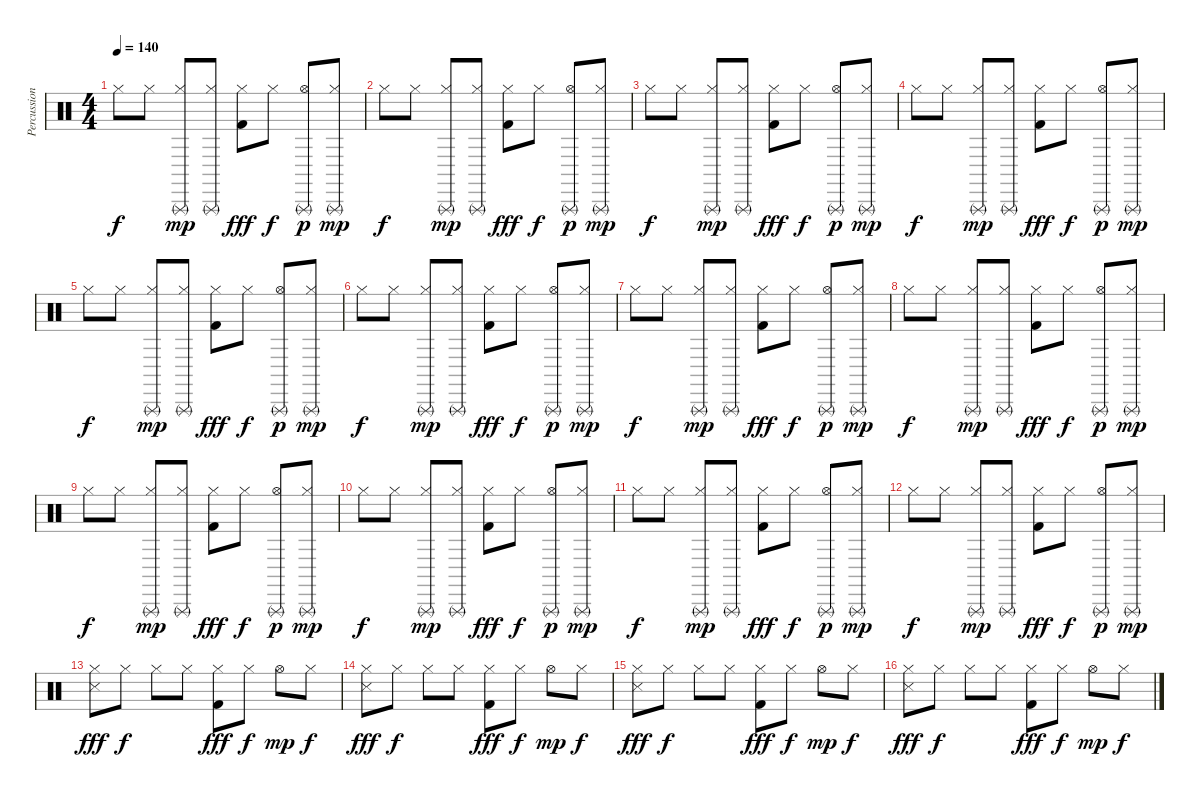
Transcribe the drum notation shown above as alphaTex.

\track ("Percussion" "Percussion") {instrument percussion}
\staff {score}
\articulation defaults
\ts (4 4)
\tempo 140
\clef neutral
\ks c "Hi-Hat (closed)".8{dy f} "Hi-Hat (closed)".8
("Triangle (rnute)" "Hi-Hat (closed)").8{dy mp} ("Triangle (rnute)" "Hi-Hat (closed)").8 ("Hi-Hat (closed)" "Kick (hit) 2").8{dy fff} "Hi-Hat (closed)".8{dy f} ("Triangle (rnute)" "Hi-Hat (open)").8{dy p} ("Triangle (rnute)" "Hi-Hat (closed)").8{dy mp} |
"Hi-Hat (closed)".8{dy f} "Hi-Hat (closed)".8 ("Triangle (rnute)" "Hi-Hat (closed)").8{dy mp} ("Triangle (rnute)" "Hi-Hat (closed)").8 ("Hi-Hat (closed)" "Kick (hit) 2").8{dy fff} "Hi-Hat (closed)".8{dy f} ("Triangle (rnute)" "Hi-Hat (open)").8{dy p} ("Triangle (rnute)" "Hi-Hat (closed)").8{dy mp} |
"Hi-Hat (closed)".8{dy f} "Hi-Hat (closed)".8 ("Triangle (rnute)" "Hi-Hat (closed)").8{dy mp} ("Triangle (rnute)" "Hi-Hat (closed)").8 ("Hi-Hat (closed)" "Kick (hit) 2").8{dy fff} "Hi-Hat (closed)".8{dy f} ("Triangle (rnute)" "Hi-Hat (open)").8{dy p} ("Triangle (rnute)" "Hi-Hat (closed)").8{dy mp} |
"Hi-Hat (closed)".8{dy f} "Hi-Hat (closed)".8 ("Triangle (rnute)" "Hi-Hat (closed)").8{dy mp} ("Triangle (rnute)" "Hi-Hat (closed)").8 ("Hi-Hat (closed)" "Kick (hit) 2").8{dy fff} "Hi-Hat (closed)".8{dy f} ("Triangle (rnute)" "Hi-Hat (open)").8{dy p} ("Triangle (rnute)" "Hi-Hat (closed)").8{dy mp} |
"Hi-Hat (closed)".8{dy f} "Hi-Hat (closed)".8 ("Triangle (rnute)" "Hi-Hat (closed)").8{dy mp} ("Triangle (rnute)" "Hi-Hat (closed)").8 ("Hi-Hat (closed)" "Kick (hit) 2").8{dy fff} "Hi-Hat (closed)".8{dy f} ("Triangle (rnute)" "Hi-Hat (open)").8{dy p} ("Triangle (rnute)" "Hi-Hat (closed)").8{dy mp} |
"Hi-Hat (closed)".8{dy f} "Hi-Hat (closed)".8 ("Triangle (rnute)" "Hi-Hat (closed)").8{dy mp} ("Triangle (rnute)" "Hi-Hat (closed)").8 ("Hi-Hat (closed)" "Kick (hit) 2").8{dy fff} "Hi-Hat (closed)".8{dy f} ("Triangle (rnute)" "Hi-Hat (open)").8{dy p} ("Triangle (rnute)" "Hi-Hat (closed)").8{dy mp} |
"Hi-Hat (closed)".8{dy f} "Hi-Hat (closed)".8 ("Triangle (rnute)" "Hi-Hat (closed)").8{dy mp} ("Triangle (rnute)" "Hi-Hat (closed)").8 ("Hi-Hat (closed)" "Kick (hit) 2").8{dy fff} "Hi-Hat (closed)".8{dy f} ("Triangle (rnute)" "Hi-Hat (open)").8{dy p} ("Triangle (rnute)" "Hi-Hat (closed)").8{dy mp} |
"Hi-Hat (closed)".8{dy f} "Hi-Hat (closed)".8 ("Triangle (rnute)" "Hi-Hat (closed)").8{dy mp} ("Triangle (rnute)" "Hi-Hat (closed)").8 ("Hi-Hat (closed)" "Kick (hit) 2").8{dy fff} "Hi-Hat (closed)".8{dy f} ("Triangle (rnute)" "Hi-Hat (open)").8{dy p} ("Triangle (rnute)" "Hi-Hat (closed)").8{dy mp} |
"Hi-Hat (closed)".8{dy f} "Hi-Hat (closed)".8 ("Triangle (rnute)" "Hi-Hat (closed)").8{dy mp} ("Triangle (rnute)" "Hi-Hat (closed)").8 ("Hi-Hat (closed)" "Kick (hit) 2").8{dy fff} "Hi-Hat (closed)".8{dy f} ("Triangle (rnute)" "Hi-Hat (open)").8{dy p} ("Triangle (rnute)" "Hi-Hat (closed)").8{dy mp} |
"Hi-Hat (closed)".8{dy f} "Hi-Hat (closed)".8 ("Triangle (rnute)" "Hi-Hat (closed)").8{dy mp} ("Triangle (rnute)" "Hi-Hat (closed)").8 ("Hi-Hat (closed)" "Kick (hit) 2").8{dy fff} "Hi-Hat (closed)".8{dy f} ("Triangle (rnute)" "Hi-Hat (open)").8{dy p} ("Triangle (rnute)" "Hi-Hat (closed)").8{dy mp} |
"Hi-Hat (closed)".8{dy f} "Hi-Hat (closed)".8 ("Triangle (rnute)" "Hi-Hat (closed)").8{dy mp} ("Triangle (rnute)" "Hi-Hat (closed)").8 ("Hi-Hat (closed)" "Kick (hit) 2").8{dy fff} "Hi-Hat (closed)".8{dy f} ("Triangle (rnute)" "Hi-Hat (open)").8{dy p} ("Triangle (rnute)" "Hi-Hat (closed)").8{dy mp} |
"Hi-Hat (closed)".8{dy f} "Hi-Hat (closed)".8 ("Triangle (rnute)" "Hi-Hat (closed)").8{dy mp} ("Triangle (rnute)" "Hi-Hat (closed)").8 ("Hi-Hat (closed)" "Kick (hit) 2").8{dy fff} "Hi-Hat (closed)".8{dy f} ("Triangle (rnute)" "Hi-Hat (open)").8{dy p} ("Triangle (rnute)" "Hi-Hat (closed)").8{dy mp} |
("Hi-Hat (closed)" "Snare (side stick) 3").8{dy fff} "Hi-Hat (closed)".8{dy f} "Hi-Hat (closed)".8 "Hi-Hat (closed)".8 ("Hi-Hat (closed)" "Kick (hit) 2").8{dy fff} "Hi-Hat (closed)".8{dy f} "Hi-Hat (open)".8{dy mp} "Hi-Hat (closed)".8{dy f} |
("Hi-Hat (closed)" "Snare (side stick) 3").8{dy fff} "Hi-Hat (closed)".8{dy f} "Hi-Hat (closed)".8 "Hi-Hat (closed)".8 ("Hi-Hat (closed)" "Kick (hit) 2").8{dy fff} "Hi-Hat (closed)".8{dy f} "Hi-Hat (open)".8{dy mp} "Hi-Hat (closed)".8{dy f} |
("Hi-Hat (closed)" "Snare (side stick) 3").8{dy fff} "Hi-Hat (closed)".8{dy f} "Hi-Hat (closed)".8 "Hi-Hat (closed)".8 ("Hi-Hat (closed)" "Kick (hit) 2").8{dy fff} "Hi-Hat (closed)".8{dy f} "Hi-Hat (open)".8{dy mp} "Hi-Hat (closed)".8{dy f} |
("Hi-Hat (closed)" "Snare (side stick) 3").8{dy fff} "Hi-Hat (closed)".8{dy f} "Hi-Hat (closed)".8 "Hi-Hat (closed)".8 ("Hi-Hat (closed)" "Kick (hit) 2").8{dy fff} "Hi-Hat (closed)".8{dy f} "Hi-Hat (open)".8{dy mp} "Hi-Hat (closed)".8{dy f}
